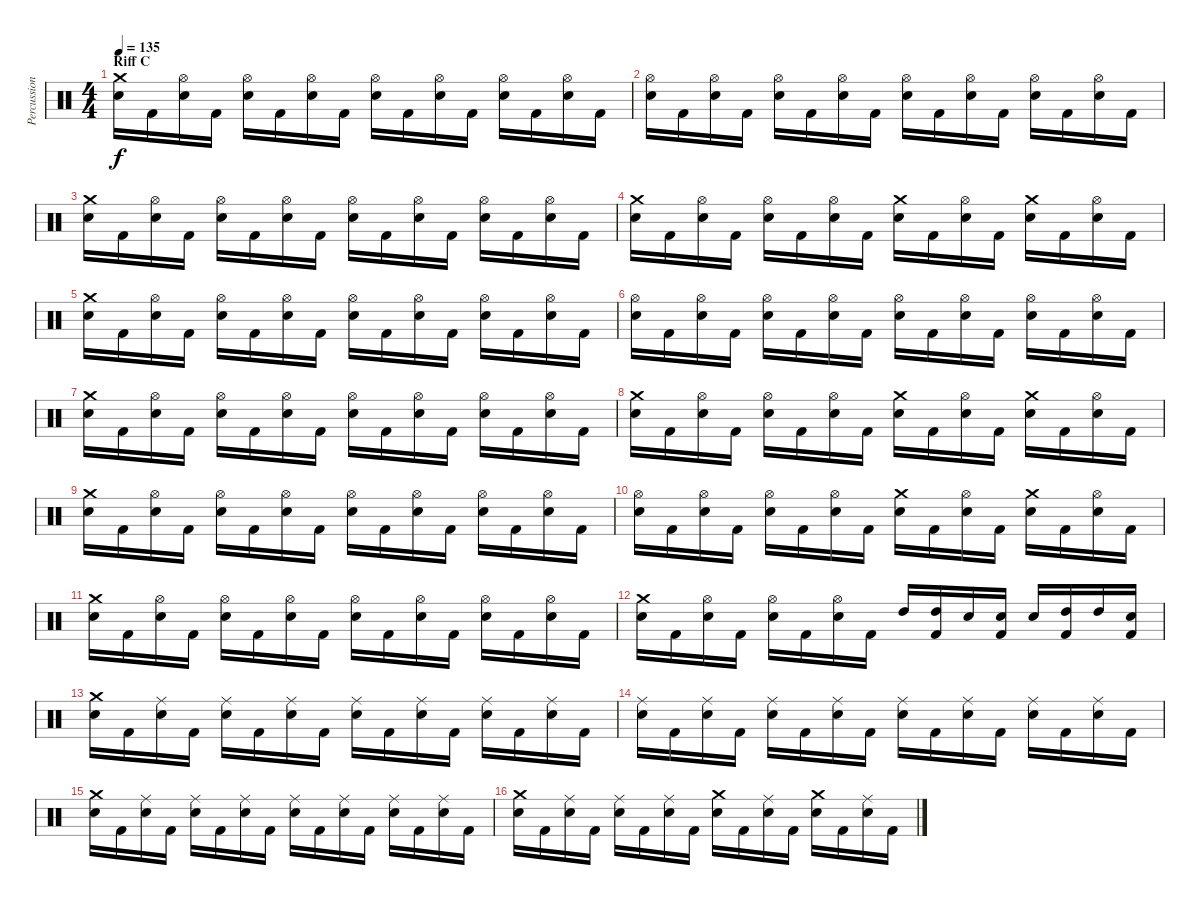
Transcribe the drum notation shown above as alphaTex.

\track ("Percussion" "Percussion") {instrument percussion}
\staff {score}
\articulation defaults
\ts (4 4)
\section ("" "Riff C")
\tempo 135
\clef neutral
\ks c
("Crash medium (hit)" "Snare (hit) 2").16{dy f} "Kick (hit) 2".16 ("Hi-Hat (open)" "Snare (hit) 2").16 "Kick (hit) 2".16 ("Hi-Hat (open)" "Snare (hit) 2").16 "Kick (hit) 2".16 ("Hi-Hat (open)" "Snare (hit) 2").16 "Kick (hit) 2".16 ("Hi-Hat (open)" "Snare (hit) 2").16 "Kick (hit) 2".16 ("Hi-Hat (open)" "Snare (hit) 2").16 "Kick (hit) 2".16 ("Hi-Hat (open)" "Snare (hit) 2").16 "Kick (hit) 2".16 ("Hi-Hat (open)" "Snare (hit) 2").16 "Kick (hit) 2".16 |
("Hi-Hat (open)" "Snare (hit) 2").16 "Kick (hit) 2".16 ("Hi-Hat (open)" "Snare (hit) 2").16 "Kick (hit) 2".16 ("Hi-Hat (open)" "Snare (hit) 2").16 "Kick (hit) 2".16 ("Hi-Hat (open)" "Snare (hit) 2").16 "Kick (hit) 2".16 ("Hi-Hat (open)" "Snare (hit) 2").16 "Kick (hit) 2".16 ("Hi-Hat (open)" "Snare (hit) 2").16 "Kick (hit) 2".16 ("Hi-Hat (open)" "Snare (hit) 2").16 "Kick (hit) 2".16 ("Hi-Hat (open)" "Snare (hit) 2").16 "Kick (hit) 2".16 |
("Crash medium (hit)" "Snare (hit) 2").16 "Kick (hit) 2".16 ("Hi-Hat (open)" "Snare (hit) 2").16 "Kick (hit) 2".16 ("Hi-Hat (open)" "Snare (hit) 2").16 "Kick (hit) 2".16 ("Hi-Hat (open)" "Snare (hit) 2").16 "Kick (hit) 2".16 ("Hi-Hat (open)" "Snare (hit) 2").16 "Kick (hit) 2".16 ("Hi-Hat (open)" "Snare (hit) 2").16 "Kick (hit) 2".16 ("Hi-Hat (open)" "Snare (hit) 2").16 "Kick (hit) 2".16 ("Hi-Hat (open)" "Snare (hit) 2").16 "Kick (hit) 2".16 |
("Crash medium (hit)" "Snare (hit) 2").16 "Kick (hit) 2".16 ("Hi-Hat (open)" "Snare (hit) 2").16 "Kick (hit) 2".16 ("Hi-Hat (open)" "Snare (hit) 2").16 "Kick (hit) 2".16 ("Hi-Hat (open)" "Snare (hit) 2").16 "Kick (hit) 2".16 ("Crash medium (hit)" "Snare (hit) 2").16 "Kick (hit) 2".16 ("Hi-Hat (open)" "Snare (hit) 2").16 "Kick (hit) 2".16 ("Crash medium (hit)" "Snare (hit) 2").16 "Kick (hit) 2".16 ("Hi-Hat (open)" "Snare (hit) 2").16 "Kick (hit) 2".16 |
("Crash medium (hit)" "Snare (hit) 2").16 "Kick (hit) 2".16 ("Hi-Hat (open)" "Snare (hit) 2").16 "Kick (hit) 2".16 ("Hi-Hat (open)" "Snare (hit) 2").16 "Kick (hit) 2".16 ("Hi-Hat (open)" "Snare (hit) 2").16 "Kick (hit) 2".16 ("Hi-Hat (open)" "Snare (hit) 2").16 "Kick (hit) 2".16 ("Hi-Hat (open)" "Snare (hit) 2").16 "Kick (hit) 2".16 ("Hi-Hat (open)" "Snare (hit) 2").16 "Kick (hit) 2".16 ("Hi-Hat (open)" "Snare (hit) 2").16 "Kick (hit) 2".16 |
("Hi-Hat (open)" "Snare (hit) 2").16 "Kick (hit) 2".16 ("Hi-Hat (open)" "Snare (hit) 2").16 "Kick (hit) 2".16 ("Hi-Hat (open)" "Snare (hit) 2").16 "Kick (hit) 2".16 ("Hi-Hat (open)" "Snare (hit) 2").16 "Kick (hit) 2".16 ("Hi-Hat (open)" "Snare (hit) 2").16 "Kick (hit) 2".16 ("Hi-Hat (open)" "Snare (hit) 2").16 "Kick (hit) 2".16 ("Hi-Hat (open)" "Snare (hit) 2").16 "Kick (hit) 2".16 ("Hi-Hat (open)" "Snare (hit) 2").16 "Kick (hit) 2".16 |
("Crash medium (hit)" "Snare (hit) 2").16 "Kick (hit) 2".16 ("Hi-Hat (open)" "Snare (hit) 2").16 "Kick (hit) 2".16 ("Hi-Hat (open)" "Snare (hit) 2").16 "Kick (hit) 2".16 ("Hi-Hat (open)" "Snare (hit) 2").16 "Kick (hit) 2".16 ("Hi-Hat (open)" "Snare (hit) 2").16 "Kick (hit) 2".16 ("Hi-Hat (open)" "Snare (hit) 2").16 "Kick (hit) 2".16 ("Hi-Hat (open)" "Snare (hit) 2").16 "Kick (hit) 2".16 ("Hi-Hat (open)" "Snare (hit) 2").16 "Kick (hit) 2".16 |
("Crash medium (hit)" "Snare (hit) 2").16 "Kick (hit) 2".16 ("Hi-Hat (open)" "Snare (hit) 2").16 "Kick (hit) 2".16 ("Hi-Hat (open)" "Snare (hit) 2").16 "Kick (hit) 2".16 ("Hi-Hat (open)" "Snare (hit) 2").16 "Kick (hit) 2".16 ("Crash medium (hit)" "Snare (hit) 2").16 "Kick (hit) 2".16 ("Hi-Hat (open)" "Snare (hit) 2").16 "Kick (hit) 2".16 ("Crash medium (hit)" "Snare (hit) 2").16 "Kick (hit) 2".16 ("Hi-Hat (open)" "Snare (hit) 2").16 "Kick (hit) 2".16 |
("Crash medium (hit)" "Snare (hit) 2").16 "Kick (hit) 2".16 ("Hi-Hat (open)" "Snare (hit) 2").16 "Kick (hit) 2".16 ("Hi-Hat (open)" "Snare (hit) 2").16 "Kick (hit) 2".16 ("Hi-Hat (open)" "Snare (hit) 2").16 "Kick (hit) 2".16 ("Hi-Hat (open)" "Snare (hit) 2").16 "Kick (hit) 2".16 ("Hi-Hat (open)" "Snare (hit) 2").16 "Kick (hit) 2".16 ("Hi-Hat (open)" "Snare (hit) 2").16 "Kick (hit) 2".16 ("Hi-Hat (open)" "Snare (hit) 2").16 "Kick (hit) 2".16 |
("Hi-Hat (open)" "Snare (hit) 2").16 "Kick (hit) 2".16 ("Hi-Hat (open)" "Snare (hit) 2").16 "Kick (hit) 2".16 ("Hi-Hat (open)" "Snare (hit) 2").16 "Kick (hit) 2".16 ("Hi-Hat (open)" "Snare (hit) 2").16 "Kick (hit) 2".16 ("Crash medium (hit)" "Snare (hit) 2").16 "Kick (hit) 2".16 ("Hi-Hat (open)" "Snare (hit) 2").16 "Kick (hit) 2".16 ("Crash medium (hit)" "Snare (hit) 2").16 "Kick (hit) 2".16 ("Hi-Hat (open)" "Snare (hit) 2").16 "Kick (hit) 2".16 |
("Crash medium (hit)" "Snare (hit) 2").16 "Kick (hit) 2".16 ("Hi-Hat (open)" "Snare (hit) 2").16 "Kick (hit) 2".16 ("Hi-Hat (open)" "Snare (hit) 2").16 "Kick (hit) 2".16 ("Hi-Hat (open)" "Snare (hit) 2").16 "Kick (hit) 2".16 ("Hi-Hat (open)" "Snare (hit) 2").16 "Kick (hit) 2".16 ("Hi-Hat (open)" "Snare (hit) 2").16 "Kick (hit) 2".16 ("Hi-Hat (open)" "Snare (hit) 2").16 "Kick (hit) 2".16 ("Hi-Hat (open)" "Snare (hit) 2").16 "Kick (hit) 2".16 |
("Crash medium (hit)" "Snare (hit) 2").16 "Kick (hit) 2".16 ("Hi-Hat (open)" "Snare (hit) 2").16 "Kick (hit) 2".16 ("Hi-Hat (open)" "Snare (hit) 2").16 "Kick (hit) 2".16 ("Hi-Hat (open)" "Snare (hit) 2").16 "Kick (hit) 2".16 "High Tom (hit)".16 ("High Tom (hit)" "Kick (hit) 2").16 "Snare (hit) 2".16 ("Snare (hit) 2" "Kick (hit) 2").16 "Snare (hit) 2".16 ("High Tom (hit)" "Kick (hit) 2").16 "High Tom (hit)".16 ("Snare (hit) 2" "Kick (hit) 2").16 |
("Crash medium (hit)" "Snare (hit) 2").16 "Kick (hit) 2".16 ("Ride (middle)" "Snare (hit) 2").16 "Kick (hit) 2".16 ("Ride (middle)" "Snare (hit) 2").16 "Kick (hit) 2".16 ("Ride (middle)" "Snare (hit) 2").16 "Kick (hit) 2".16 ("Ride (middle)" "Snare (hit) 2").16 "Kick (hit) 2".16 ("Ride (middle)" "Snare (hit) 2").16 "Kick (hit) 2".16 ("Ride (middle)" "Snare (hit) 2").16 "Kick (hit) 2".16 ("Ride (middle)" "Snare (hit) 2").16 "Kick (hit) 2".16 |
("Ride (middle)" "Snare (hit) 2").16 "Kick (hit) 2".16 ("Ride (middle)" "Snare (hit) 2").16 "Kick (hit) 2".16 ("Ride (middle)" "Snare (hit) 2").16 "Kick (hit) 2".16 ("Ride (middle)" "Snare (hit) 2").16 "Kick (hit) 2".16 ("Ride (middle)" "Snare (hit) 2").16 "Kick (hit) 2".16 ("Ride (middle)" "Snare (hit) 2").16 "Kick (hit) 2".16 ("Ride (middle)" "Snare (hit) 2").16 "Kick (hit) 2".16 ("Ride (middle)" "Snare (hit) 2").16 "Kick (hit) 2".16 |
("Crash medium (hit)" "Snare (hit) 2").16 "Kick (hit) 2".16 ("Ride (middle)" "Snare (hit) 2").16 "Kick (hit) 2".16 ("Ride (middle)" "Snare (hit) 2").16 "Kick (hit) 2".16 ("Ride (middle)" "Snare (hit) 2").16 "Kick (hit) 2".16 ("Ride (middle)" "Snare (hit) 2").16 "Kick (hit) 2".16 ("Ride (middle)" "Snare (hit) 2").16 "Kick (hit) 2".16 ("Ride (middle)" "Snare (hit) 2").16 "Kick (hit) 2".16 ("Ride (middle)" "Snare (hit) 2").16 "Kick (hit) 2".16 |
("Crash medium (hit)" "Snare (hit) 2").16 "Kick (hit) 2".16 ("Ride (middle)" "Snare (hit) 2").16 "Kick (hit) 2".16 ("Ride (middle)" "Snare (hit) 2").16 "Kick (hit) 2".16 ("Ride (middle)" "Snare (hit) 2").16 "Kick (hit) 2".16 ("Crash medium (hit)" "Snare (hit) 2").16 "Kick (hit) 2".16 ("Ride (middle)" "Snare (hit) 2").16 "Kick (hit) 2".16 ("Crash medium (hit)" "Snare (hit) 2").16 "Kick (hit) 2".16 ("Ride (middle)" "Snare (hit) 2").16 "Kick (hit) 2".16
